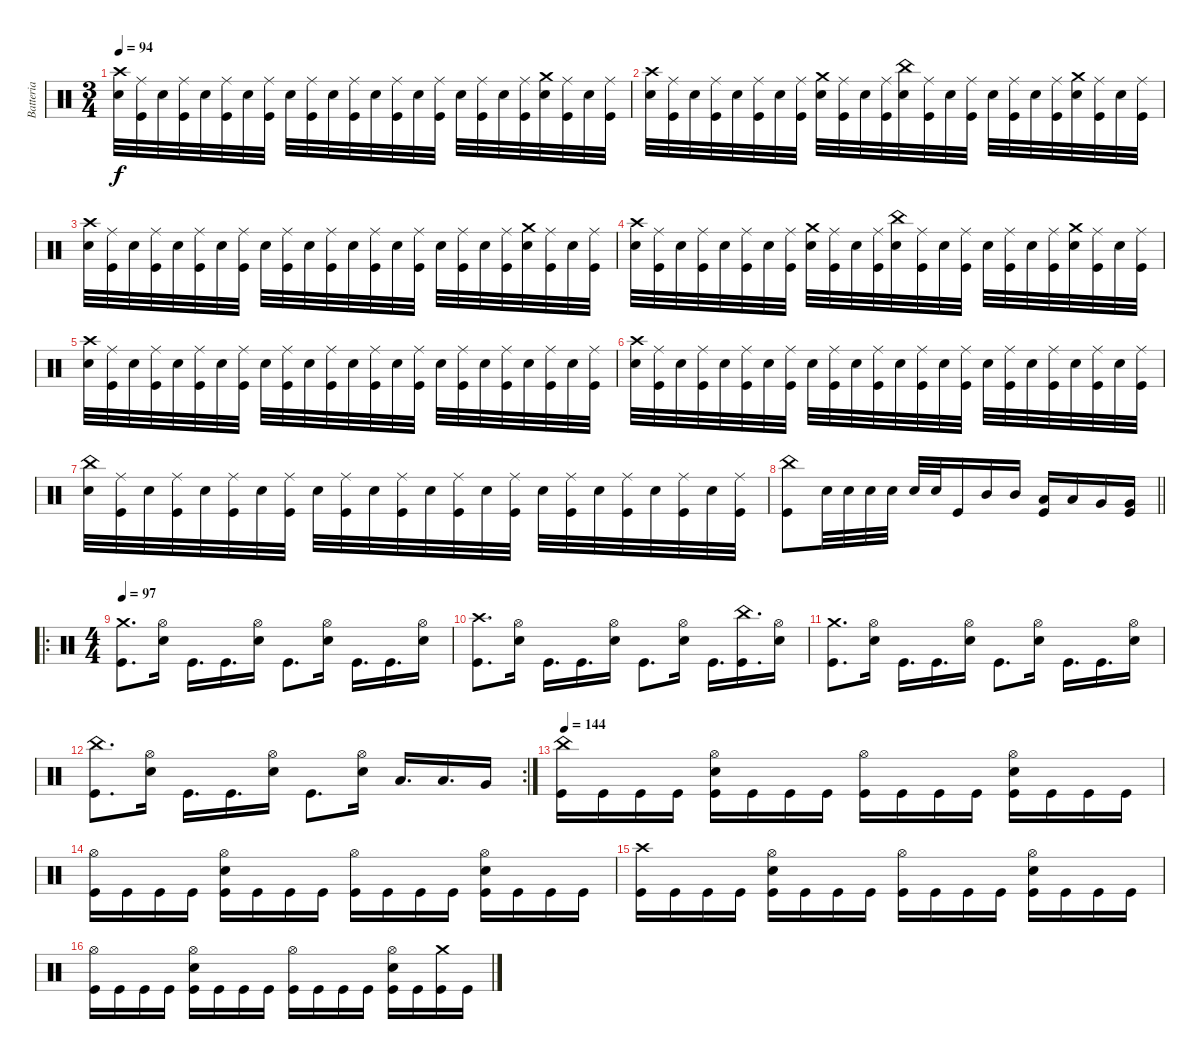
\track ("Batteria" "Batteria") {instrument percussion}
\staff {score}
\articulation defaults
\ts (3 4)
\tempo 94
\clef neutral
\ks c
("Crash high (hit)" "Snare (hit) 2").32{dy f} ("Ride (middle)" "Kick (hit)").32 "Snare (hit) 2".32 ("Ride (middle)" "Kick (hit)").32 "Snare (hit) 2".32 ("Ride (middle)" "Kick (hit)").32 "Snare (hit) 2".32 ("Ride (middle)" "Kick (hit)").32 "Snare (hit) 2".32 ("Ride (middle)" "Kick (hit)").32 "Snare (hit) 2".32 ("Ride (middle)" "Kick (hit)").32 "Snare (hit) 2".32 ("Ride (middle)" "Kick (hit)").32 "Snare (hit) 2".32 ("Ride (middle)" "Kick (hit)").32 "Snare (hit) 2".32 ("Ride (middle)" "Kick (hit)").32 "Snare (hit) 2".32 ("Ride (middle)" "Kick (hit)").32 ("Crash medium (hit)" "Snare (hit) 2").32 ("Ride (middle)" "Kick (hit)").32 "Snare (hit) 2".32 ("Ride (middle)" "Kick (hit)").32 |
("Crash high (hit)" "Snare (hit) 2").32 ("Ride (middle)" "Kick (hit)").32 "Snare (hit) 2".32 ("Ride (middle)" "Kick (hit)").32 "Snare (hit) 2".32 ("Ride (middle)" "Kick (hit)").32 "Snare (hit) 2".32 ("Ride (middle)" "Kick (hit)").32 ("Crash medium (hit)" "Snare (hit) 2").32 ("Ride (middle)" "Kick (hit)").32 "Snare (hit) 2".32 ("Ride (middle)" "Kick (hit)").32 ("China (hit)" "Snare (hit) 2").32 ("Ride (middle)" "Kick (hit)").32 "Snare (hit) 2".32 ("Ride (middle)" "Kick (hit)").32 "Snare (hit) 2".32 ("Ride (middle)" "Kick (hit)").32 "Snare (hit) 2".32 ("Ride (middle)" "Kick (hit)").32 ("Crash medium (hit)" "Snare (hit) 2").32 ("Ride (middle)" "Kick (hit)").32 "Snare (hit) 2".32 ("Ride (middle)" "Kick (hit)").32 |
("Crash high (hit)" "Snare (hit) 2").32 ("Ride (middle)" "Kick (hit)").32 "Snare (hit) 2".32 ("Ride (middle)" "Kick (hit)").32 "Snare (hit) 2".32 ("Ride (middle)" "Kick (hit)").32 "Snare (hit) 2".32 ("Ride (middle)" "Kick (hit)").32 "Snare (hit) 2".32 ("Ride (middle)" "Kick (hit)").32 "Snare (hit) 2".32 ("Ride (middle)" "Kick (hit)").32 "Snare (hit) 2".32 ("Ride (middle)" "Kick (hit)").32 "Snare (hit) 2".32 ("Ride (middle)" "Kick (hit)").32 "Snare (hit) 2".32 ("Ride (middle)" "Kick (hit)").32 "Snare (hit) 2".32 ("Ride (middle)" "Kick (hit)").32 ("Crash medium (hit)" "Snare (hit) 2").32 ("Ride (middle)" "Kick (hit)").32 "Snare (hit) 2".32 ("Ride (middle)" "Kick (hit)").32 |
("Crash high (hit)" "Snare (hit) 2").32 ("Ride (middle)" "Kick (hit)").32 "Snare (hit) 2".32 ("Ride (middle)" "Kick (hit)").32 "Snare (hit) 2".32 ("Ride (middle)" "Kick (hit)").32 "Snare (hit) 2".32 ("Ride (middle)" "Kick (hit)").32 ("Crash medium (hit)" "Snare (hit) 2").32 ("Ride (middle)" "Kick (hit)").32 "Snare (hit) 2".32 ("Ride (middle)" "Kick (hit)").32 ("China (hit)" "Snare (hit) 2").32 ("Ride (middle)" "Kick (hit)").32 "Snare (hit) 2".32 ("Ride (middle)" "Kick (hit)").32 "Snare (hit) 2".32 ("Ride (middle)" "Kick (hit)").32 "Snare (hit) 2".32 ("Ride (middle)" "Kick (hit)").32 ("Crash medium (hit)" "Snare (hit) 2").32 ("Ride (middle)" "Kick (hit)").32 "Snare (hit) 2".32 ("Ride (middle)" "Kick (hit)").32 |
("Crash high (hit)" "Snare (hit) 2").32 ("Ride (middle)" "Kick (hit)").32 "Snare (hit) 2".32 ("Ride (middle)" "Kick (hit)").32 "Snare (hit) 2".32 ("Ride (middle)" "Kick (hit)").32 "Snare (hit) 2".32 ("Ride (middle)" "Kick (hit)").32 "Snare (hit) 2".32 ("Ride (middle)" "Kick (hit)").32 "Snare (hit) 2".32 ("Ride (middle)" "Kick (hit)").32 "Snare (hit) 2".32 ("Ride (middle)" "Kick (hit)").32 "Snare (hit) 2".32 ("Ride (middle)" "Kick (hit)").32 "Snare (hit) 2".32 ("Ride (middle)" "Kick (hit)").32 "Snare (hit) 2".32 ("Ride (middle)" "Kick (hit)").32 "Snare (hit) 2".32 ("Ride (middle)" "Kick (hit)").32 "Snare (hit) 2".32 ("Ride (middle)" "Kick (hit)").32 |
("Crash high (hit)" "Snare (hit) 2").32 ("Ride (middle)" "Kick (hit)").32 "Snare (hit) 2".32 ("Ride (middle)" "Kick (hit)").32 "Snare (hit) 2".32 ("Ride (middle)" "Kick (hit)").32 "Snare (hit) 2".32 ("Ride (middle)" "Kick (hit)").32 "Snare (hit) 2".32 ("Ride (middle)" "Kick (hit)").32 "Snare (hit) 2".32 ("Ride (middle)" "Kick (hit)").32 "Snare (hit) 2".32 ("Ride (middle)" "Kick (hit)").32 "Snare (hit) 2".32 ("Ride (middle)" "Kick (hit)").32 "Snare (hit) 2".32 ("Ride (middle)" "Kick (hit)").32 "Snare (hit) 2".32 ("Ride (middle)" "Kick (hit)").32 "Snare (hit) 2".32 ("Ride (middle)" "Kick (hit)").32 "Snare (hit) 2".32 ("Ride (middle)" "Kick (hit)").32 |
("China (hit)" "Snare (hit) 2").32 ("Ride (middle)" "Kick (hit)").32 "Snare (hit) 2".32 ("Ride (middle)" "Kick (hit)").32 "Snare (hit) 2".32 ("Ride (middle)" "Kick (hit)").32 "Snare (hit) 2".32 ("Ride (middle)" "Kick (hit)").32 "Snare (hit) 2".32 ("Ride (middle)" "Kick (hit)").32 "Snare (hit) 2".32 ("Ride (middle)" "Kick (hit)").32 "Snare (hit) 2".32 ("Ride (middle)" "Kick (hit)").32 "Snare (hit) 2".32 ("Ride (middle)" "Kick (hit)").32 "Snare (hit) 2".32 ("Ride (middle)" "Kick (hit)").32 "Snare (hit) 2".32 ("Ride (middle)" "Kick (hit)").32 "Snare (hit) 2".32 ("Ride (middle)" "Kick (hit)").32 "Snare (hit) 2".32 ("Ride (middle)" "Kick (hit)").32 |
\barLineRight lightlight
("China (hit)" "Kick (hit)").8 "Snare (hit) 2".32 "Snare (hit) 2".32 "Snare (hit) 2".32 "Snare (hit) 2".32 "Snare (hit) 2".32 "Snare (hit) 2".32 "Kick (hit)".16 "Mid Tom (hit)".16 "Mid Tom (hit)".16 ("Low Tom (hit)" "Kick (hit)").16 "Low Tom (hit)".16 "Very Low Tom (hit)".16 ("Very Low Tom (hit)" "Kick (hit)").16 |
\ro
\ts (4 4)
\tempo 97
("Crash medium (hit)" "Kick (hit)").8{d} ("Hi-Hat (open)" "Snare (hit) 2").16 "Kick (hit)".16{d} "Kick (hit)".16{d} ("Hi-Hat (open)" "Snare (hit) 2").16 "Kick (hit)".8{d} ("Hi-Hat (open)" "Snare (hit) 2").16 "Kick (hit)".16{d} "Kick (hit)".16{d} ("Hi-Hat (open)" "Snare (hit) 2").16 |
("Crash high (hit)" "Kick (hit)").8{d} ("Hi-Hat (open)" "Snare (hit) 2").16 "Kick (hit)".16{d} "Kick (hit)".16{d} ("Hi-Hat (open)" "Snare (hit) 2").16 "Kick (hit)".8{d} ("Hi-Hat (open)" "Snare (hit) 2").16 "Kick (hit)".16{d} ("China (hit)" "Kick (hit)").16{d} ("Hi-Hat (open)" "Snare (hit) 2").16 |
("Crash medium (hit)" "Kick (hit)").8{d} ("Hi-Hat (open)" "Snare (hit) 2").16 "Kick (hit)".16{d} "Kick (hit)".16{d} ("Hi-Hat (open)" "Snare (hit) 2").16 "Kick (hit)".8{d} ("Hi-Hat (open)" "Snare (hit) 2").16 "Kick (hit)".16{d} "Kick (hit)".16{d} ("Hi-Hat (open)" "Snare (hit) 2").16 |
\rc 2
("China (hit)" "Kick (hit)").8{d} ("Hi-Hat (open)" "Snare (hit) 2").16 "Kick (hit)".16{d} "Kick (hit)".16{d} ("Hi-Hat (open)" "Snare (hit) 2").16 "Kick (hit)".8{d} ("Hi-Hat (open)" "Snare (hit) 2").16 "Low Tom (hit)".16{d} "Low Tom (hit)".16{d} "Very Low Tom (hit)".16 |
\tempo 144
("China (hit)" "Kick (hit)").16 "Kick (hit)".16 "Kick (hit)".16 "Kick (hit)".16 ("Hi-Hat (open)" "Snare (hit) 2" "Kick (hit)").16 "Kick (hit)".16 "Kick (hit)".16 "Kick (hit)".16 ("Hi-Hat (open)" "Kick (hit)").16 "Kick (hit)".16 "Kick (hit)".16 "Kick (hit)".16 ("Hi-Hat (open)" "Snare (hit) 2" "Kick (hit)").16 "Kick (hit)".16 "Kick (hit)".16 "Kick (hit)".16 |
("Hi-Hat (open)" "Kick (hit)").16 "Kick (hit)".16 "Kick (hit)".16 "Kick (hit)".16 ("Hi-Hat (open)" "Snare (hit) 2" "Kick (hit)").16 "Kick (hit)".16 "Kick (hit)".16 "Kick (hit)".16 ("Hi-Hat (open)" "Kick (hit)").16 "Kick (hit)".16 "Kick (hit)".16 "Kick (hit)".16 ("Hi-Hat (open)" "Snare (hit) 2" "Kick (hit)").16 "Kick (hit)".16 "Kick (hit)".16 "Kick (hit)".16 |
("Crash high (hit)" "Kick (hit)").16 "Kick (hit)".16 "Kick (hit)".16 "Kick (hit)".16 ("Hi-Hat (open)" "Snare (hit) 2" "Kick (hit)").16 "Kick (hit)".16 "Kick (hit)".16 "Kick (hit)".16 ("Hi-Hat (open)" "Kick (hit)").16 "Kick (hit)".16 "Kick (hit)".16 "Kick (hit)".16 ("Hi-Hat (open)" "Snare (hit) 2" "Kick (hit)").16 "Kick (hit)".16 "Kick (hit)".16 "Kick (hit)".16 |
("Hi-Hat (open)" "Kick (hit)").16 "Kick (hit)".16 "Kick (hit)".16 "Kick (hit)".16 ("Hi-Hat (open)" "Snare (hit) 2" "Kick (hit)").16 "Kick (hit)".16 "Kick (hit)".16 "Kick (hit)".16 ("Hi-Hat (open)" "Kick (hit)").16 "Kick (hit)".16 "Kick (hit)".16 "Kick (hit)".16 ("Hi-Hat (open)" "Snare (hit) 2" "Kick (hit)").16 "Kick (hit)".16 ("Crash medium (hit)" "Kick (hit)").16 "Kick (hit)".16
